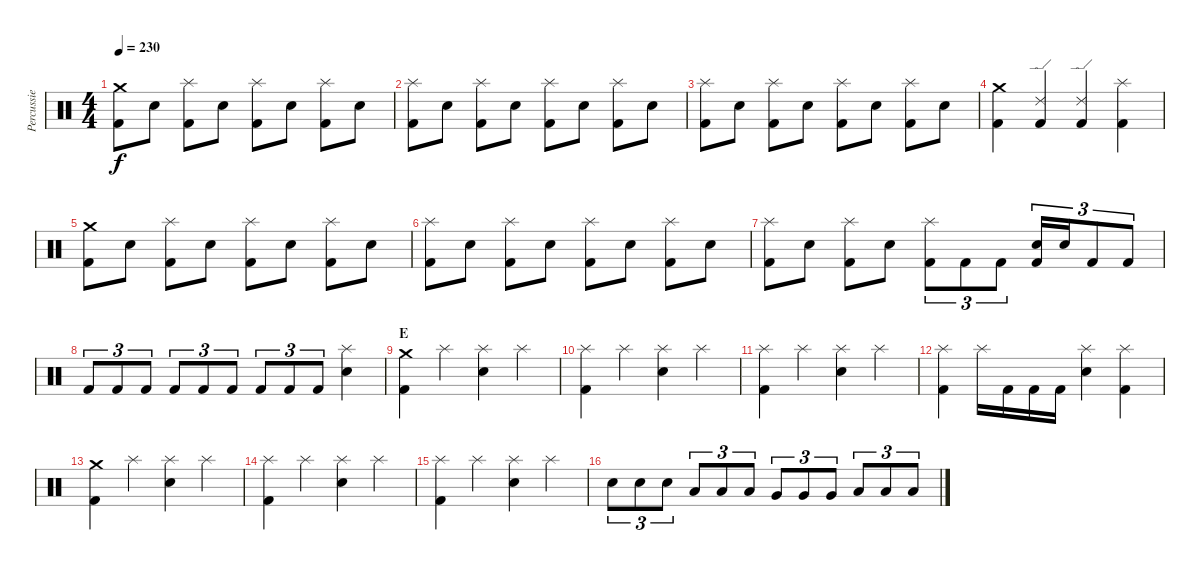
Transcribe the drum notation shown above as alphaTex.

\track ("Percussie" "Percussie") {instrument percussion}
\staff {score}
\articulation defaults
\ts (4 4)
\tempo 230
\clef neutral
\ks c
("Crash medium (hit)" "Kick (hit) 2").8{dy f} "Electric Snare (hit)".8 ("Splash (hit)" "Kick (hit) 2").8 "Electric Snare (hit)".8 ("Splash (hit)" "Kick (hit) 2").8 "Electric Snare (hit)".8 ("Splash (hit)" "Kick (hit) 2").8 "Electric Snare (hit)".8 |
("Splash (hit)" "Kick (hit) 2").8 "Electric Snare (hit)".8 ("Splash (hit)" "Kick (hit) 2").8 "Electric Snare (hit)".8 ("Splash (hit)" "Kick (hit) 2").8 "Electric Snare (hit)".8 ("Splash (hit)" "Kick (hit) 2").8 "Electric Snare (hit)".8 |
("Splash (hit)" "Kick (hit) 2").8 "Electric Snare (hit)".8 ("Splash (hit)" "Kick (hit) 2").8 "Electric Snare (hit)".8 ("Splash (hit)" "Kick (hit) 2").8 "Electric Snare (hit)".8 ("Splash (hit)" "Kick (hit) 2").8 "Electric Snare (hit)".8 |
("Crash medium (hit)" "Kick (hit) 2").4 ("Ride (edge) 2" "Kick (hit) 2").4 ("Ride (edge) 2" "Kick (hit) 2").4 ("Splash (hit)" "Kick (hit) 2").4 |
("Crash medium (hit)" "Kick (hit) 2").8 "Electric Snare (hit)".8 ("Splash (hit)" "Kick (hit) 2").8 "Electric Snare (hit)".8 ("Splash (hit)" "Kick (hit) 2").8 "Electric Snare (hit)".8 ("Splash (hit)" "Kick (hit) 2").8 "Electric Snare (hit)".8 |
("Splash (hit)" "Kick (hit) 2").8 "Electric Snare (hit)".8 ("Splash (hit)" "Kick (hit) 2").8 "Electric Snare (hit)".8 ("Splash (hit)" "Kick (hit) 2").8 "Electric Snare (hit)".8 ("Splash (hit)" "Kick (hit) 2").8 "Electric Snare (hit)".8 |
("Splash (hit)" "Kick (hit) 2").8 "Electric Snare (hit)".8 ("Splash (hit)" "Kick (hit) 2").8 "Electric Snare (hit)".8 ("Splash (hit)" "Kick (hit) 2").8{tu (3 2)} "Kick (hit) 2".8{tu (3 2)} "Kick (hit) 2".8{tu (3 2)} ("Electric Snare (hit)" "Kick (hit) 2").16{tu (3 2)} "Electric Snare (hit)".16{tu (3 2)} "Kick (hit) 2".8{tu (3 2)} "Kick (hit) 2".8{tu (3 2)} |
"Kick (hit) 2".8{tu (3 2)} "Kick (hit) 2".8{tu (3 2)} "Kick (hit) 2".8{tu (3 2)} "Kick (hit) 2".8{tu (3 2)} "Kick (hit) 2".8{tu (3 2)} "Kick (hit) 2".8{tu (3 2)} "Kick (hit) 2".8{tu (3 2)} "Kick (hit) 2".8{tu (3 2)} "Kick (hit) 2".8{tu (3 2)} ("Splash (hit)" "Electric Snare (hit)").4 |
\section ("" "E")
("Crash medium (hit)" "Kick (hit) 2").4 "Splash (hit)".4 ("Splash (hit)" "Electric Snare (hit)").4 "Splash (hit)".4 |
("Splash (hit)" "Kick (hit) 2").4 "Splash (hit)".4 ("Splash (hit)" "Electric Snare (hit)").4 "Splash (hit)".4 |
("Splash (hit)" "Kick (hit) 2").4 "Splash (hit)".4 ("Splash (hit)" "Electric Snare (hit)").4 "Splash (hit)".4 |
("Splash (hit)" "Kick (hit) 2").4 "Splash (hit)".16 "Kick (hit) 2".16 "Kick (hit) 2".16 "Kick (hit) 2".16 ("Splash (hit)" "Electric Snare (hit)").4 ("Splash (hit)" "Kick (hit) 2").4 |
("Crash medium (hit)" "Kick (hit) 2").4 "Splash (hit)".4 ("Splash (hit)" "Electric Snare (hit)").4 "Splash (hit)".4 |
("Splash (hit)" "Kick (hit) 2").4 "Splash (hit)".4 ("Splash (hit)" "Electric Snare (hit)").4 "Splash (hit)".4 |
("Splash (hit)" "Kick (hit) 2").4 "Splash (hit)".4 ("Splash (hit)" "Electric Snare (hit)").4 "Splash (hit)".4 |
"Electric Snare (hit)".8{tu (3 2)} "Electric Snare (hit)".8{tu (3 2)} "Electric Snare (hit)".8{tu (3 2)} "Low Tom (hit)".8{tu (3 2)} "Low Tom (hit)".8{tu (3 2)} "Low Tom (hit)".8{tu (3 2)} "Very Low Tom (hit)".8{tu (3 2)} "Very Low Tom (hit)".8{tu (3 2)} "Very Low Tom (hit)".8{tu (3 2)} "Low Floor Tom (hit)".8{tu (3 2)} "Low Floor Tom (hit)".8{tu (3 2)} "Low Floor Tom (hit)".8{tu (3 2)}
